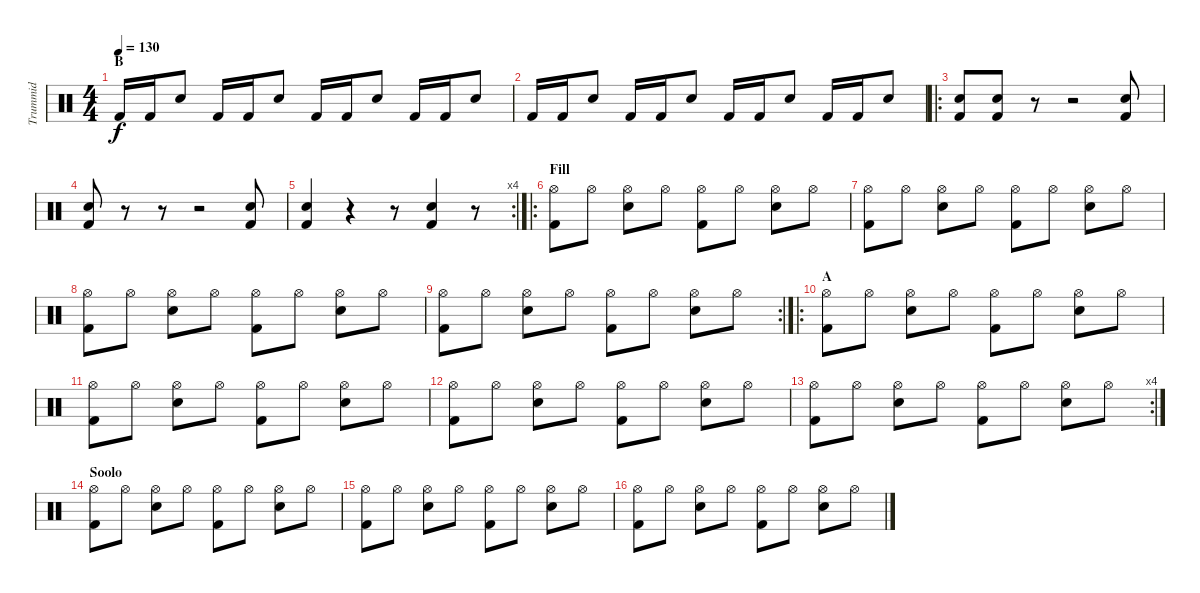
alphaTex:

\track ("Trummid" "Trummid") {instrument percussion}
\staff {score}
\articulation defaults
\ts (4 4)
\section ("" "B")
\tempo 130
\clef neutral
\ks c "Kick (hit) 2".16{dy f} "Kick (hit) 2".16 "Snare (hit) 2".8 "Kick (hit) 2".16 "Kick (hit) 2".16 "Snare (hit) 2".8 "Kick (hit) 2".16 "Kick (hit) 2".16 "Snare (hit) 2".8 "Kick (hit) 2".16 "Kick (hit) 2".16 "Snare (hit) 2".8
|
"Kick (hit) 2".16 "Kick (hit) 2".16 "Snare (hit) 2".8 "Kick (hit) 2".16 "Kick (hit) 2".16 "Snare (hit) 2".8 "Kick (hit) 2".16 "Kick (hit) 2".16 "Snare (hit) 2".8 "Kick (hit) 2".16 "Kick (hit) 2".16 "Snare (hit) 2".8 |
\ro
("Snare (hit) 2" "Kick (hit) 2").8 ("Snare (hit) 2" "Kick (hit) 2").8 r.8 r.2 ("Snare (hit) 2" "Kick (hit) 2").8 |
("Snare (hit) 2" "Kick (hit) 2").8 r.8 r.8 r.2 ("Snare (hit) 2" "Kick (hit) 2").8 |
\rc 4
("Snare (hit) 2" "Kick (hit) 2").4 r.4 r.8 ("Snare (hit) 2" "Kick (hit) 2").4 r.8 |
\ro
\section ("" "Fill")
("Hi-Hat (open)" "Kick (hit) 2").8 "Hi-Hat (open)".8 ("Hi-Hat (open)" "Snare (hit) 2").8 "Hi-Hat (open)".8 ("Hi-Hat (open)" "Kick (hit) 2").8 "Hi-Hat (open)".8 ("Hi-Hat (open)" "Snare (hit) 2").8 "Hi-Hat (open)".8 |
("Hi-Hat (open)" "Kick (hit) 2").8 "Hi-Hat (open)".8 ("Hi-Hat (open)" "Snare (hit) 2").8 "Hi-Hat (open)".8 ("Hi-Hat (open)" "Kick (hit) 2").8 "Hi-Hat (open)".8 ("Hi-Hat (open)" "Snare (hit) 2").8 "Hi-Hat (open)".8 |
("Hi-Hat (open)" "Kick (hit) 2").8 "Hi-Hat (open)".8 ("Hi-Hat (open)" "Snare (hit) 2").8 "Hi-Hat (open)".8 ("Hi-Hat (open)" "Kick (hit) 2").8 "Hi-Hat (open)".8 ("Hi-Hat (open)" "Snare (hit) 2").8 "Hi-Hat (open)".8 |
\rc 2
("Hi-Hat (open)" "Kick (hit) 2").8 "Hi-Hat (open)".8 ("Hi-Hat (open)" "Snare (hit) 2").8 "Hi-Hat (open)".8 ("Hi-Hat (open)" "Kick (hit) 2").8 "Hi-Hat (open)".8 ("Hi-Hat (open)" "Snare (hit) 2").8 "Hi-Hat (open)".8 |
\ro
\section ("" "A")
("Hi-Hat (open)" "Kick (hit) 2").8 "Hi-Hat (open)".8 ("Hi-Hat (open)" "Snare (hit) 2").8 "Hi-Hat (open)".8 ("Hi-Hat (open)" "Kick (hit) 2").8 "Hi-Hat (open)".8 ("Hi-Hat (open)" "Snare (hit) 2").8 "Hi-Hat (open)".8 |
("Hi-Hat (open)" "Kick (hit) 2").8 "Hi-Hat (open)".8 ("Hi-Hat (open)" "Snare (hit) 2").8 "Hi-Hat (open)".8 ("Hi-Hat (open)" "Kick (hit) 2").8 "Hi-Hat (open)".8 ("Hi-Hat (open)" "Snare (hit) 2").8 "Hi-Hat (open)".8 |
("Hi-Hat (open)" "Kick (hit) 2").8 "Hi-Hat (open)".8 ("Hi-Hat (open)" "Snare (hit) 2").8 "Hi-Hat (open)".8 ("Hi-Hat (open)" "Kick (hit) 2").8 "Hi-Hat (open)".8 ("Hi-Hat (open)" "Snare (hit) 2").8 "Hi-Hat (open)".8 |
\rc 4
("Hi-Hat (open)" "Kick (hit) 2").8 "Hi-Hat (open)".8 ("Hi-Hat (open)" "Snare (hit) 2").8 "Hi-Hat (open)".8 ("Hi-Hat (open)" "Kick (hit) 2").8 "Hi-Hat (open)".8 ("Hi-Hat (open)" "Snare (hit) 2").8 "Hi-Hat (open)".8 |
\section ("" "Soolo")
("Hi-Hat (open)" "Kick (hit) 2").8 "Hi-Hat (open)".8 ("Hi-Hat (open)" "Snare (hit) 2").8 "Hi-Hat (open)".8 ("Hi-Hat (open)" "Kick (hit) 2").8 "Hi-Hat (open)".8 ("Hi-Hat (open)" "Snare (hit) 2").8 "Hi-Hat (open)".8 |
("Hi-Hat (open)" "Kick (hit) 2").8 "Hi-Hat (open)".8 ("Hi-Hat (open)" "Snare (hit) 2").8 "Hi-Hat (open)".8 ("Hi-Hat (open)" "Kick (hit) 2").8 "Hi-Hat (open)".8 ("Hi-Hat (open)" "Snare (hit) 2").8 "Hi-Hat (open)".8 |
("Hi-Hat (open)" "Kick (hit) 2").8 "Hi-Hat (open)".8 ("Hi-Hat (open)" "Snare (hit) 2").8 "Hi-Hat (open)".8 ("Hi-Hat (open)" "Kick (hit) 2").8 "Hi-Hat (open)".8 ("Hi-Hat (open)" "Snare (hit) 2").8 "Hi-Hat (open)".8
